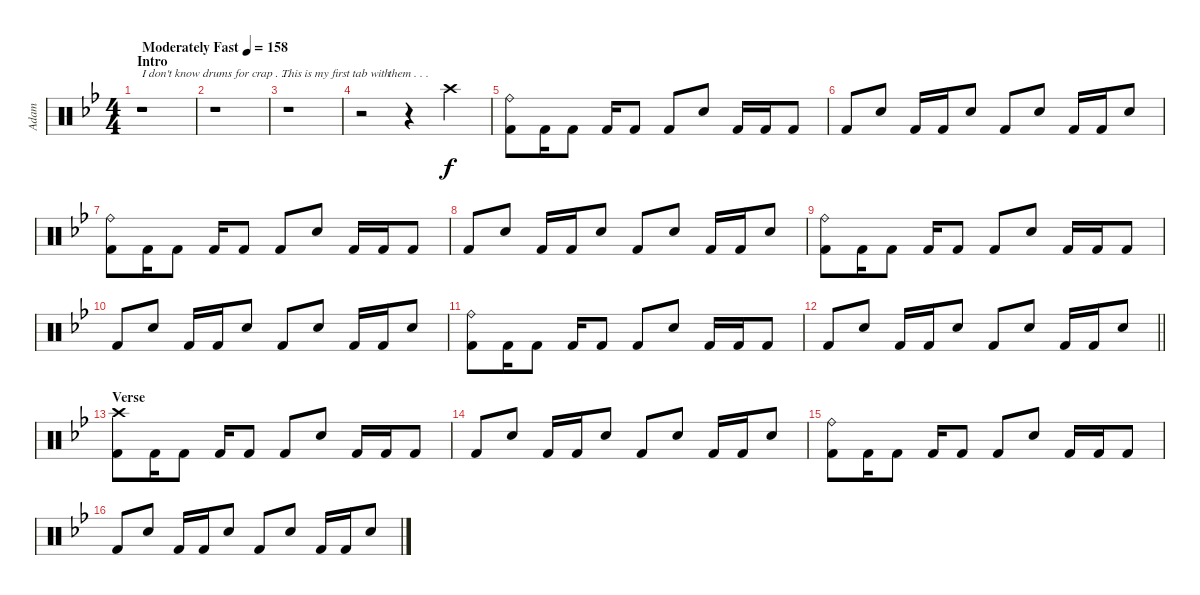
\track ("Adam" "Adam") {instrument percussion}
\staff
\articulation defaults
\ts (4 4)
\section ("" "Intro")
\tempo (158 "Moderately Fast")
\clef neutral
\ks gminor
r.1{txt "I don't know drums for crap . . ." dy f} |
r.1{txt "                      This is my first tab with"} |
r.1 |
r.2{txt "         them . . ."} r.4 "Crash high (hit)".4 |
("Ride (bell)" "Kick (hit) 2").8 "Kick (hit) 2".16 "Kick (hit) 2".8 "Kick (hit) 2".16 "Kick (hit) 2".8 "Kick (hit) 2".8 "Snare (hit) 2".8 "Kick (hit) 2".16 "Kick (hit) 2".16 "Kick (hit) 2".8 |
"Kick (hit) 2".8 "Snare (hit) 2".8 "Kick (hit) 2".16 "Kick (hit) 2".16 "Snare (hit) 2".8 "Kick (hit) 2".8 "Snare (hit) 2".8 "Kick (hit) 2".16 "Kick (hit) 2".16 "Snare (hit) 2".8 |
("Ride (bell)" "Kick (hit) 2").8 "Kick (hit) 2".16 "Kick (hit) 2".8 "Kick (hit) 2".16 "Kick (hit) 2".8 "Kick (hit) 2".8 "Snare (hit) 2".8 "Kick (hit) 2".16 "Kick (hit) 2".16 "Kick (hit) 2".8 |
"Kick (hit) 2".8 "Snare (hit) 2".8 "Kick (hit) 2".16 "Kick (hit) 2".16 "Snare (hit) 2".8 "Kick (hit) 2".8 "Snare (hit) 2".8 "Kick (hit) 2".16 "Kick (hit) 2".16 "Snare (hit) 2".8 |
("Ride (bell)" "Kick (hit) 2").8 "Kick (hit) 2".16 "Kick (hit) 2".8 "Kick (hit) 2".16 "Kick (hit) 2".8 "Kick (hit) 2".8 "Snare (hit) 2".8 "Kick (hit) 2".16 "Kick (hit) 2".16 "Kick (hit) 2".8 |
"Kick (hit) 2".8 "Snare (hit) 2".8 "Kick (hit) 2".16 "Kick (hit) 2".16 "Snare (hit) 2".8 "Kick (hit) 2".8 "Snare (hit) 2".8 "Kick (hit) 2".16 "Kick (hit) 2".16 "Snare (hit) 2".8 |
("Ride (bell)" "Kick (hit) 2").8 "Kick (hit) 2".16 "Kick (hit) 2".8 "Kick (hit) 2".16 "Kick (hit) 2".8 "Kick (hit) 2".8 "Snare (hit) 2".8 "Kick (hit) 2".16 "Kick (hit) 2".16 "Kick (hit) 2".8 |
\barLineRight lightlight "Kick (hit) 2".8 "Snare (hit) 2".8 "Kick (hit) 2".16 "Kick (hit) 2".16 "Snare (hit) 2".8 "Kick (hit) 2".8 "Snare (hit) 2".8 "Kick (hit) 2".16 "Kick (hit) 2".16 "Snare (hit) 2".8
|
\section ("" "Verse")
("Crash high (hit)" "Kick (hit) 2").8 "Kick (hit) 2".16 "Kick (hit) 2".8 "Kick (hit) 2".16 "Kick (hit) 2".8 "Kick (hit) 2".8 "Snare (hit) 2".8 "Kick (hit) 2".16 "Kick (hit) 2".16 "Kick (hit) 2".8 |
"Kick (hit) 2".8 "Snare (hit) 2".8 "Kick (hit) 2".16 "Kick (hit) 2".16 "Snare (hit) 2".8 "Kick (hit) 2".8 "Snare (hit) 2".8 "Kick (hit) 2".16 "Kick (hit) 2".16 "Snare (hit) 2".8 |
("Ride (bell)" "Kick (hit) 2").8 "Kick (hit) 2".16 "Kick (hit) 2".8 "Kick (hit) 2".16 "Kick (hit) 2".8 "Kick (hit) 2".8 "Snare (hit) 2".8 "Kick (hit) 2".16 "Kick (hit) 2".16 "Kick (hit) 2".8 |
"Kick (hit) 2".8 "Snare (hit) 2".8 "Kick (hit) 2".16 "Kick (hit) 2".16 "Snare (hit) 2".8 "Kick (hit) 2".8 "Snare (hit) 2".8 "Kick (hit) 2".16 "Kick (hit) 2".16 "Snare (hit) 2".8
